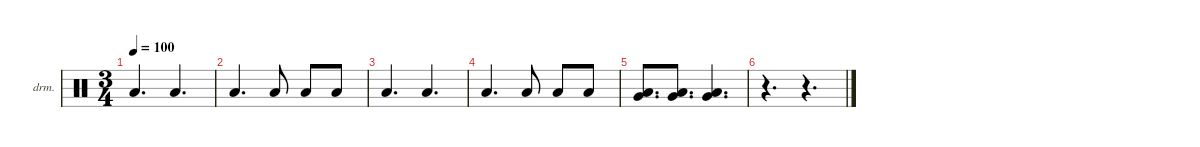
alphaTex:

\defaultSystemsLayout 4
\hideDynamics
\bracketExtendMode nobrackets
\firstSystemTrackNameOrientation horizontal
\otherSystemsTrackNameOrientation horizontal
\track ("Dondervuyscht" "drm.") {instrument percussion}
\staff {score}
\articulation defaults
\ts (3 4)
\tempo 100
\clef neutral
\ks c "Low Floor Tom (hit)".4{d dy f} "Low Floor Tom (hit)".4{d}
|
"Low Floor Tom (hit)".4{d} "Low Floor Tom (hit)".8 "Low Floor Tom (hit)".8 "Low Floor Tom (hit)".8 |
"Low Floor Tom (hit)".4{d} "Low Floor Tom (hit)".4{d} |
"Low Floor Tom (hit)".4{d} "Low Floor Tom (hit)".8 "Low Floor Tom (hit)".8 "Low Floor Tom (hit)".8 |
("Very Low Tom (hit)" "Low Floor Tom (hit)").8{d} ("Very Low Tom (hit)" "Low Floor Tom (hit)").8{d} ("Very Low Tom (hit)" "Low Floor Tom (hit)").4{d} |
r.4{d} r.4{d}
